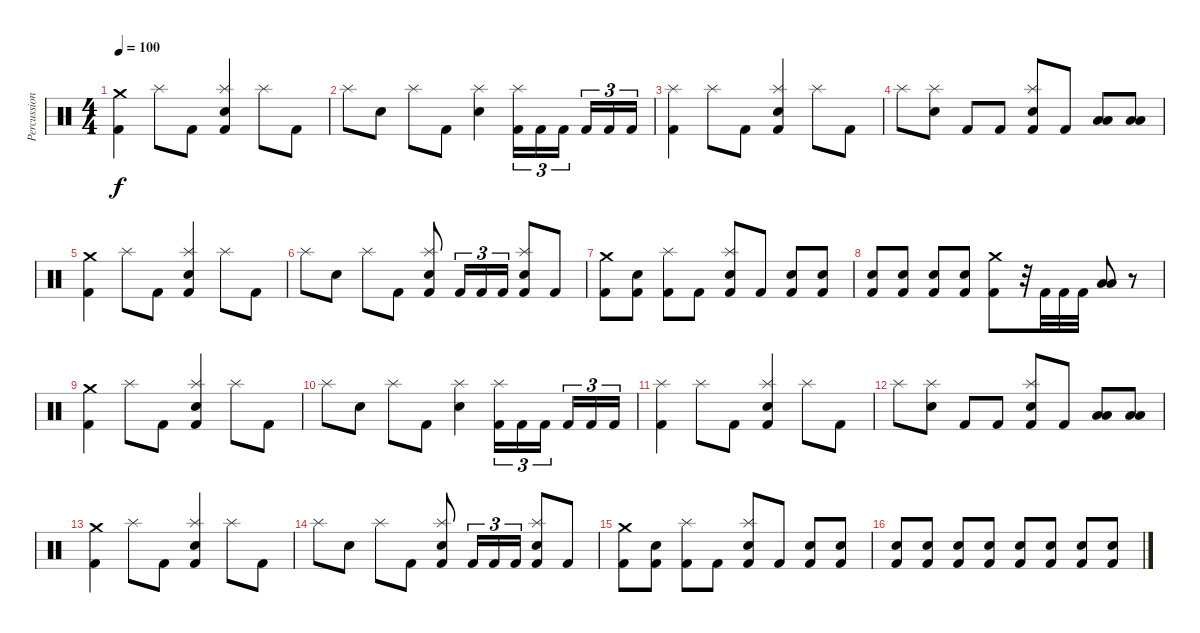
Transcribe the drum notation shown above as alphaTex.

\track ("Percussion" "Percussion") {instrument percussion}
\staff {score}
\articulation defaults
\ts (4 4)
\tempo 100
\clef neutral
\ks c
("Kick (hit) 2" "Crash medium (hit)").4{dy f} "Splash (hit)".8 "Kick (hit) 2".8 ("Kick (hit) 2" "Splash (hit)" "Snare (hit) 2").4 "Splash (hit)".8 "Kick (hit) 2".8 |
"Splash (hit)".8 "Snare (hit) 2".8 "Splash (hit)".8 "Kick (hit) 2".8 ("Splash (hit)" "Snare (hit) 2").4 ("Kick (hit) 2" "Splash (hit)").16{tu (3 2)} "Kick (hit) 2".16{tu (3 2)} "Kick (hit) 2".16{tu (3 2)} "Kick (hit) 2".16{tu (3 2)} "Kick (hit) 2".16{tu (3 2)} "Kick (hit) 2".16{tu (3 2)} |
("Kick (hit) 2" "Splash (hit)").4 "Splash (hit)".8 "Kick (hit) 2".8 ("Kick (hit) 2" "Splash (hit)" "Snare (hit) 2").4 "Splash (hit)".8 "Kick (hit) 2".8 |
"Splash (hit)".8 ("Splash (hit)" "Snare (hit) 2").8 "Kick (hit) 2".8 "Kick (hit) 2".8 ("Kick (hit) 2" "Splash (hit)" "Snare (hit) 2").8 "Kick (hit) 2".8 ("Low Tom (hit)" "Low Tom (hit)").8 ("Low Tom (hit)" "Low Tom (hit)").8 |
("Kick (hit) 2" "Crash medium (hit)").4 "Splash (hit)".8 "Kick (hit) 2".8 ("Kick (hit) 2" "Splash (hit)" "Snare (hit) 2").4 "Splash (hit)".8 "Kick (hit) 2".8 |
"Splash (hit)".8 "Snare (hit) 2".8 "Splash (hit)".8 "Kick (hit) 2".8 ("Kick (hit) 2" "Splash (hit)" "Snare (hit) 2").8 "Kick (hit) 2".16{tu (3 2)} "Kick (hit) 2".16{tu (3 2)} "Kick (hit) 2".16{tu (3 2)} ("Kick (hit) 2" "Snare (hit) 2" "Splash (hit)").8 "Kick (hit) 2".8 |
("Kick (hit) 2" "Crash medium (hit)").8 ("Kick (hit) 2" "Snare (hit) 2").8 ("Kick (hit) 2" "Splash (hit)").8 "Kick (hit) 2".8 ("Kick (hit) 2" "Snare (hit) 2" "Splash (hit)").8 "Kick (hit) 2".8 ("Kick (hit) 2" "Snare (hit) 2").8 ("Kick (hit) 2" "Snare (hit) 2").8 |
("Kick (hit) 2" "Snare (hit) 2").8 ("Kick (hit) 2" "Snare (hit) 2").8 ("Kick (hit) 2" "Snare (hit) 2").8 ("Kick (hit) 2" "Snare (hit) 2").8 ("Kick (hit) 2" "Crash medium (hit)").8 r.32 "Kick (hit) 2".32 "Kick (hit) 2".32 "Kick (hit) 2".32 ("Low Tom (hit)" "Low Tom (hit)").8 r.8 |
("Kick (hit) 2" "Crash medium (hit)").4 "Splash (hit)".8 "Kick (hit) 2".8 ("Kick (hit) 2" "Splash (hit)" "Snare (hit) 2").4 "Splash (hit)".8 "Kick (hit) 2".8 |
"Splash (hit)".8 "Snare (hit) 2".8 "Splash (hit)".8 "Kick (hit) 2".8 ("Splash (hit)" "Snare (hit) 2").4 ("Kick (hit) 2" "Splash (hit)").16{tu (3 2)} "Kick (hit) 2".16{tu (3 2)} "Kick (hit) 2".16{tu (3 2)} "Kick (hit) 2".16{tu (3 2)} "Kick (hit) 2".16{tu (3 2)} "Kick (hit) 2".16{tu (3 2)} |
("Kick (hit) 2" "Splash (hit)").4 "Splash (hit)".8 "Kick (hit) 2".8 ("Kick (hit) 2" "Splash (hit)" "Snare (hit) 2").4 "Splash (hit)".8 "Kick (hit) 2".8 |
"Splash (hit)".8 ("Splash (hit)" "Snare (hit) 2").8 "Kick (hit) 2".8 "Kick (hit) 2".8 ("Kick (hit) 2" "Splash (hit)" "Snare (hit) 2").8 "Kick (hit) 2".8 ("Low Tom (hit)" "Low Tom (hit)").8 ("Low Tom (hit)" "Low Tom (hit)").8 |
("Kick (hit) 2" "Crash medium (hit)").4 "Splash (hit)".8 "Kick (hit) 2".8 ("Kick (hit) 2" "Splash (hit)" "Snare (hit) 2").4 "Splash (hit)".8 "Kick (hit) 2".8 |
"Splash (hit)".8 "Snare (hit) 2".8 "Splash (hit)".8 "Kick (hit) 2".8 ("Kick (hit) 2" "Splash (hit)" "Snare (hit) 2").8 "Kick (hit) 2".16{tu (3 2)} "Kick (hit) 2".16{tu (3 2)} "Kick (hit) 2".16{tu (3 2)} ("Kick (hit) 2" "Snare (hit) 2" "Splash (hit)").8 "Kick (hit) 2".8 |
("Kick (hit) 2" "Crash medium (hit)").8 ("Kick (hit) 2" "Snare (hit) 2").8 ("Kick (hit) 2" "Splash (hit)").8 "Kick (hit) 2".8 ("Kick (hit) 2" "Snare (hit) 2" "Splash (hit)").8 "Kick (hit) 2".8 ("Kick (hit) 2" "Snare (hit) 2").8 ("Kick (hit) 2" "Snare (hit) 2").8 |
("Kick (hit) 2" "Snare (hit) 2").8 ("Kick (hit) 2" "Snare (hit) 2").8 ("Kick (hit) 2" "Snare (hit) 2").8 ("Kick (hit) 2" "Snare (hit) 2").8 ("Kick (hit) 2" "Snare (hit) 2").8 ("Kick (hit) 2" "Snare (hit) 2").8 ("Kick (hit) 2" "Snare (hit) 2").8 ("Kick (hit) 2" "Snare (hit) 2").8
